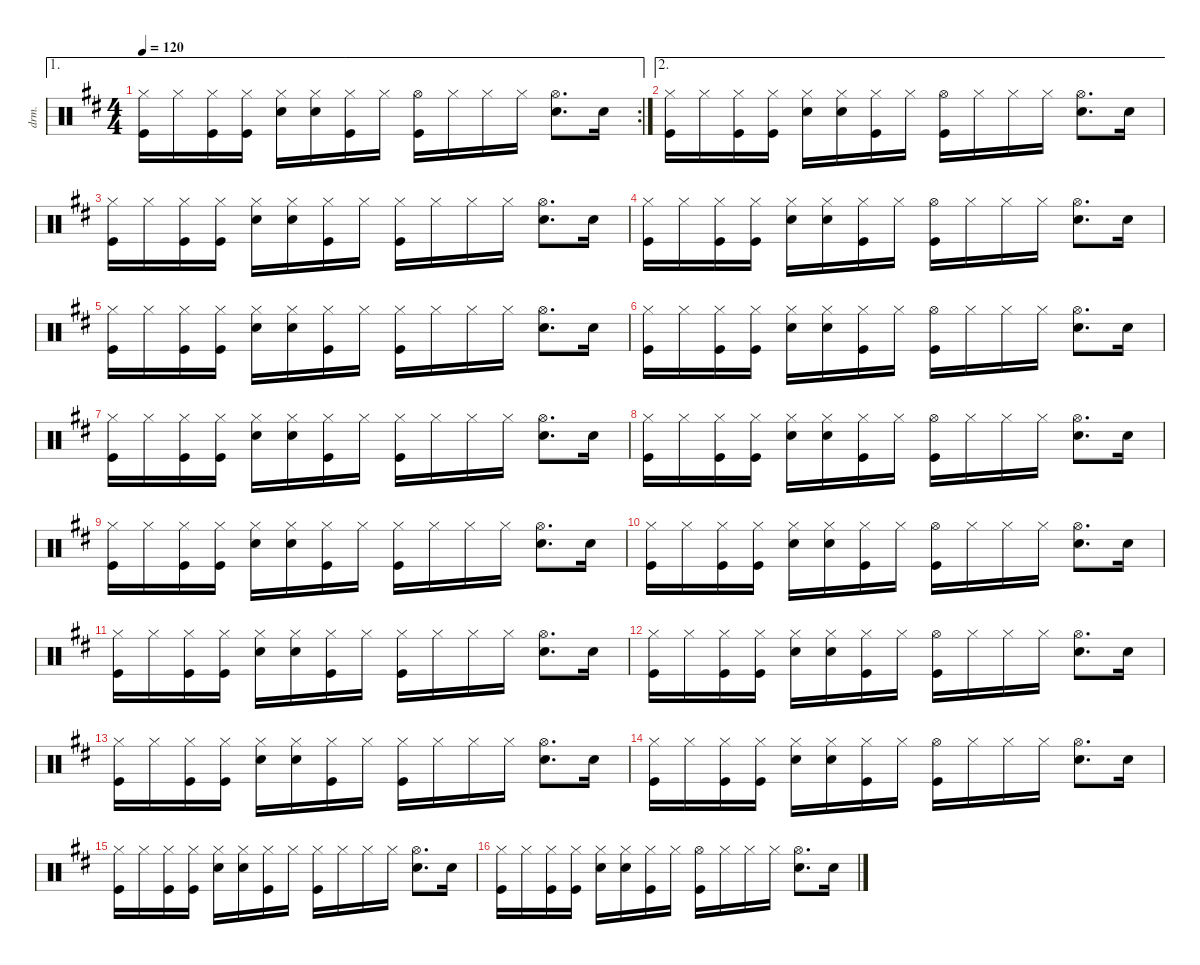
\defaultSystemsLayout 4
\hideDynamics
\bracketExtendMode nobrackets
\otherSystemsTrackNameOrientation horizontal
\track ("Drums" "drm.") {instrument percussion}
\staff {score}
\articulation defaults
\ae 1
\rc 2
\ts (4 4)
\tempo 120
\clef neutral
\ks d
("Hi-Hat (closed)"{acc forcenatural} "Kick (hit)"{acc forcenatural}).16{dy f} "Hi-Hat (closed)"{acc forcenatural}.16 ("Hi-Hat (closed)"{acc forcenatural} "Kick (hit)"{acc forcenatural}).16 ("Hi-Hat (closed)"{acc forcenatural} "Kick (hit)"{acc forcenatural}).16 ("Hi-Hat (closed)"{acc forcenatural} "Snare (hit) 2"{acc forcenatural}).16 ("Hi-Hat (closed)"{acc forcenatural} "Snare (hit) 2"{acc forcenatural}).16 ("Hi-Hat (closed)"{acc forcenatural} "Kick (hit)"{acc forcenatural}).16 "Hi-Hat (closed)"{acc forcenatural}.16 ("Hi-Hat (open)"{acc forcenatural} "Kick (hit)"{acc forcenatural}).16 "Hi-Hat (closed)"{acc forcenatural}.16 "Hi-Hat (closed)"{acc forcenatural}.16 "Hi-Hat (closed)"{acc forcenatural}.16 ("Hi-Hat (open)"{acc forcenatural} "Snare (hit) 2"{acc forcenatural}).8{d} "Snare (hit) 2"{acc forcenatural}.16 |
\ae 2
("Hi-Hat (closed)"{acc forcenatural} "Kick (hit)"{acc forcenatural}).16 "Hi-Hat (closed)"{acc forcenatural}.16 ("Hi-Hat (closed)"{acc forcenatural} "Kick (hit)"{acc forcenatural}).16 ("Hi-Hat (closed)"{acc forcenatural} "Kick (hit)"{acc forcenatural}).16 ("Hi-Hat (closed)"{acc forcenatural} "Snare (hit) 2"{acc forcenatural}).16 ("Hi-Hat (closed)"{acc forcenatural} "Snare (hit) 2"{acc forcenatural}).16 ("Hi-Hat (closed)"{acc forcenatural} "Kick (hit)"{acc forcenatural}).16 "Hi-Hat (closed)"{acc forcenatural}.16 ("Hi-Hat (open)"{acc forcenatural} "Kick (hit)"{acc forcenatural}).16 "Hi-Hat (closed)"{acc forcenatural}.16 "Hi-Hat (closed)"{acc forcenatural}.16 "Hi-Hat (closed)"{acc forcenatural}.16 ("Hi-Hat (open)"{acc forcenatural} "Snare (hit) 2"{acc forcenatural}).8{d} "Snare (hit) 2"{acc forcenatural}.16 |
("Hi-Hat (closed)"{acc forcenatural} "Kick (hit)"{acc forcenatural}).16 "Hi-Hat (closed)"{acc forcenatural}.16 ("Hi-Hat (closed)"{acc forcenatural} "Kick (hit)"{acc forcenatural}).16 ("Hi-Hat (closed)"{acc forcenatural} "Kick (hit)"{acc forcenatural}).16 ("Hi-Hat (closed)"{acc forcenatural} "Snare (hit) 2"{acc forcenatural}).16 ("Hi-Hat (closed)"{acc forcenatural} "Snare (hit) 2"{acc forcenatural}).16 ("Hi-Hat (closed)"{acc forcenatural} "Kick (hit)"{acc forcenatural}).16 "Hi-Hat (closed)"{acc forcenatural}.16 ("Hi-Hat (closed)"{acc forcenatural} "Kick (hit)"{acc forcenatural}).16 "Hi-Hat (closed)"{acc forcenatural}.16 "Hi-Hat (closed)"{acc forcenatural}.16 "Hi-Hat (closed)"{acc forcenatural}.16 ("Hi-Hat (open)"{acc forcenatural} "Snare (hit) 2"{acc forcenatural}).8{d} "Snare (hit) 2"{acc forcenatural}.16 |
("Hi-Hat (closed)"{acc forcenatural} "Kick (hit)"{acc forcenatural}).16 "Hi-Hat (closed)"{acc forcenatural}.16 ("Hi-Hat (closed)"{acc forcenatural} "Kick (hit)"{acc forcenatural}).16 ("Hi-Hat (closed)"{acc forcenatural} "Kick (hit)"{acc forcenatural}).16 ("Hi-Hat (closed)"{acc forcenatural} "Snare (hit) 2"{acc forcenatural}).16 ("Hi-Hat (closed)"{acc forcenatural} "Snare (hit) 2"{acc forcenatural}).16 ("Hi-Hat (closed)"{acc forcenatural} "Kick (hit)"{acc forcenatural}).16 "Hi-Hat (closed)"{acc forcenatural}.16 ("Hi-Hat (open)"{acc forcenatural} "Kick (hit)"{acc forcenatural}).16 "Hi-Hat (closed)"{acc forcenatural}.16 "Hi-Hat (closed)"{acc forcenatural}.16 "Hi-Hat (closed)"{acc forcenatural}.16 ("Hi-Hat (open)"{acc forcenatural} "Snare (hit) 2"{acc forcenatural}).8{d} "Snare (hit) 2"{acc forcenatural}.16 |
("Hi-Hat (closed)"{acc forcenatural} "Kick (hit)"{acc forcenatural}).16 "Hi-Hat (closed)"{acc forcenatural}.16 ("Hi-Hat (closed)"{acc forcenatural} "Kick (hit)"{acc forcenatural}).16 ("Hi-Hat (closed)"{acc forcenatural} "Kick (hit)"{acc forcenatural}).16 ("Hi-Hat (closed)"{acc forcenatural} "Snare (hit) 2"{acc forcenatural}).16 ("Hi-Hat (closed)"{acc forcenatural} "Snare (hit) 2"{acc forcenatural}).16 ("Hi-Hat (closed)"{acc forcenatural} "Kick (hit)"{acc forcenatural}).16 "Hi-Hat (closed)"{acc forcenatural}.16 ("Hi-Hat (closed)"{acc forcenatural} "Kick (hit)"{acc forcenatural}).16 "Hi-Hat (closed)"{acc forcenatural}.16 "Hi-Hat (closed)"{acc forcenatural}.16 "Hi-Hat (closed)"{acc forcenatural}.16 ("Hi-Hat (open)"{acc forcenatural} "Snare (hit) 2"{acc forcenatural}).8{d} "Snare (hit) 2"{acc forcenatural}.16 |
("Hi-Hat (closed)"{acc forcenatural} "Kick (hit)"{acc forcenatural}).16 "Hi-Hat (closed)"{acc forcenatural}.16 ("Hi-Hat (closed)"{acc forcenatural} "Kick (hit)"{acc forcenatural}).16 ("Hi-Hat (closed)"{acc forcenatural} "Kick (hit)"{acc forcenatural}).16 ("Hi-Hat (closed)"{acc forcenatural} "Snare (hit) 2"{acc forcenatural}).16 ("Hi-Hat (closed)"{acc forcenatural} "Snare (hit) 2"{acc forcenatural}).16 ("Hi-Hat (closed)"{acc forcenatural} "Kick (hit)"{acc forcenatural}).16 "Hi-Hat (closed)"{acc forcenatural}.16 ("Hi-Hat (open)"{acc forcenatural} "Kick (hit)"{acc forcenatural}).16 "Hi-Hat (closed)"{acc forcenatural}.16 "Hi-Hat (closed)"{acc forcenatural}.16 "Hi-Hat (closed)"{acc forcenatural}.16 ("Hi-Hat (open)"{acc forcenatural} "Snare (hit) 2"{acc forcenatural}).8{d} "Snare (hit) 2"{acc forcenatural}.16 |
("Hi-Hat (closed)"{acc forcenatural} "Kick (hit)"{acc forcenatural}).16 "Hi-Hat (closed)"{acc forcenatural}.16 ("Hi-Hat (closed)"{acc forcenatural} "Kick (hit)"{acc forcenatural}).16 ("Hi-Hat (closed)"{acc forcenatural} "Kick (hit)"{acc forcenatural}).16 ("Hi-Hat (closed)"{acc forcenatural} "Snare (hit) 2"{acc forcenatural}).16 ("Hi-Hat (closed)"{acc forcenatural} "Snare (hit) 2"{acc forcenatural}).16 ("Hi-Hat (closed)"{acc forcenatural} "Kick (hit)"{acc forcenatural}).16 "Hi-Hat (closed)"{acc forcenatural}.16 ("Hi-Hat (closed)"{acc forcenatural} "Kick (hit)"{acc forcenatural}).16 "Hi-Hat (closed)"{acc forcenatural}.16 "Hi-Hat (closed)"{acc forcenatural}.16 "Hi-Hat (closed)"{acc forcenatural}.16 ("Hi-Hat (open)"{acc forcenatural} "Snare (hit) 2"{acc forcenatural}).8{d} "Snare (hit) 2"{acc forcenatural}.16 |
("Hi-Hat (closed)"{acc forcenatural} "Kick (hit)"{acc forcenatural}).16 "Hi-Hat (closed)"{acc forcenatural}.16 ("Hi-Hat (closed)"{acc forcenatural} "Kick (hit)"{acc forcenatural}).16 ("Hi-Hat (closed)"{acc forcenatural} "Kick (hit)"{acc forcenatural}).16 ("Hi-Hat (closed)"{acc forcenatural} "Snare (hit) 2"{acc forcenatural}).16 ("Hi-Hat (closed)"{acc forcenatural} "Snare (hit) 2"{acc forcenatural}).16 ("Hi-Hat (closed)"{acc forcenatural} "Kick (hit)"{acc forcenatural}).16 "Hi-Hat (closed)"{acc forcenatural}.16 ("Hi-Hat (open)"{acc forcenatural} "Kick (hit)"{acc forcenatural}).16 "Hi-Hat (closed)"{acc forcenatural}.16 "Hi-Hat (closed)"{acc forcenatural}.16 "Hi-Hat (closed)"{acc forcenatural}.16 ("Hi-Hat (open)"{acc forcenatural} "Snare (hit) 2"{acc forcenatural}).8{d} "Snare (hit) 2"{acc forcenatural}.16 |
("Hi-Hat (closed)"{acc forcenatural} "Kick (hit)"{acc forcenatural}).16 "Hi-Hat (closed)"{acc forcenatural}.16 ("Hi-Hat (closed)"{acc forcenatural} "Kick (hit)"{acc forcenatural}).16 ("Hi-Hat (closed)"{acc forcenatural} "Kick (hit)"{acc forcenatural}).16 ("Hi-Hat (closed)"{acc forcenatural} "Snare (hit) 2"{acc forcenatural}).16 ("Hi-Hat (closed)"{acc forcenatural} "Snare (hit) 2"{acc forcenatural}).16 ("Hi-Hat (closed)"{acc forcenatural} "Kick (hit)"{acc forcenatural}).16 "Hi-Hat (closed)"{acc forcenatural}.16 ("Hi-Hat (closed)"{acc forcenatural} "Kick (hit)"{acc forcenatural}).16 "Hi-Hat (closed)"{acc forcenatural}.16 "Hi-Hat (closed)"{acc forcenatural}.16 "Hi-Hat (closed)"{acc forcenatural}.16 ("Hi-Hat (open)"{acc forcenatural} "Snare (hit) 2"{acc forcenatural}).8{d} "Snare (hit) 2"{acc forcenatural}.16 |
("Hi-Hat (closed)"{acc forcenatural} "Kick (hit)"{acc forcenatural}).16 "Hi-Hat (closed)"{acc forcenatural}.16 ("Hi-Hat (closed)"{acc forcenatural} "Kick (hit)"{acc forcenatural}).16 ("Hi-Hat (closed)"{acc forcenatural} "Kick (hit)"{acc forcenatural}).16 ("Hi-Hat (closed)"{acc forcenatural} "Snare (hit) 2"{acc forcenatural}).16 ("Hi-Hat (closed)"{acc forcenatural} "Snare (hit) 2"{acc forcenatural}).16 ("Hi-Hat (closed)"{acc forcenatural} "Kick (hit)"{acc forcenatural}).16 "Hi-Hat (closed)"{acc forcenatural}.16 ("Hi-Hat (open)"{acc forcenatural} "Kick (hit)"{acc forcenatural}).16 "Hi-Hat (closed)"{acc forcenatural}.16 "Hi-Hat (closed)"{acc forcenatural}.16 "Hi-Hat (closed)"{acc forcenatural}.16 ("Hi-Hat (open)"{acc forcenatural} "Snare (hit) 2"{acc forcenatural}).8{d} "Snare (hit) 2"{acc forcenatural}.16 |
("Hi-Hat (closed)"{acc forcenatural} "Kick (hit)"{acc forcenatural}).16 "Hi-Hat (closed)"{acc forcenatural}.16 ("Hi-Hat (closed)"{acc forcenatural} "Kick (hit)"{acc forcenatural}).16 ("Hi-Hat (closed)"{acc forcenatural} "Kick (hit)"{acc forcenatural}).16 ("Hi-Hat (closed)"{acc forcenatural} "Snare (hit) 2"{acc forcenatural}).16 ("Hi-Hat (closed)"{acc forcenatural} "Snare (hit) 2"{acc forcenatural}).16 ("Hi-Hat (closed)"{acc forcenatural} "Kick (hit)"{acc forcenatural}).16 "Hi-Hat (closed)"{acc forcenatural}.16 ("Hi-Hat (closed)"{acc forcenatural} "Kick (hit)"{acc forcenatural}).16 "Hi-Hat (closed)"{acc forcenatural}.16 "Hi-Hat (closed)"{acc forcenatural}.16 "Hi-Hat (closed)"{acc forcenatural}.16 ("Hi-Hat (open)"{acc forcenatural} "Snare (hit) 2"{acc forcenatural}).8{d} "Snare (hit) 2"{acc forcenatural}.16 |
("Hi-Hat (closed)"{acc forcenatural} "Kick (hit)"{acc forcenatural}).16 "Hi-Hat (closed)"{acc forcenatural}.16 ("Hi-Hat (closed)"{acc forcenatural} "Kick (hit)"{acc forcenatural}).16 ("Hi-Hat (closed)"{acc forcenatural} "Kick (hit)"{acc forcenatural}).16 ("Hi-Hat (closed)"{acc forcenatural} "Snare (hit) 2"{acc forcenatural}).16 ("Hi-Hat (closed)"{acc forcenatural} "Snare (hit) 2"{acc forcenatural}).16 ("Hi-Hat (closed)"{acc forcenatural} "Kick (hit)"{acc forcenatural}).16 "Hi-Hat (closed)"{acc forcenatural}.16 ("Hi-Hat (open)"{acc forcenatural} "Kick (hit)"{acc forcenatural}).16 "Hi-Hat (closed)"{acc forcenatural}.16 "Hi-Hat (closed)"{acc forcenatural}.16 "Hi-Hat (closed)"{acc forcenatural}.16 ("Hi-Hat (open)"{acc forcenatural} "Snare (hit) 2"{acc forcenatural}).8{d} "Snare (hit) 2"{acc forcenatural}.16 |
("Hi-Hat (closed)"{acc forcenatural} "Kick (hit)"{acc forcenatural}).16 "Hi-Hat (closed)"{acc forcenatural}.16 ("Hi-Hat (closed)"{acc forcenatural} "Kick (hit)"{acc forcenatural}).16 ("Hi-Hat (closed)"{acc forcenatural} "Kick (hit)"{acc forcenatural}).16 ("Hi-Hat (closed)"{acc forcenatural} "Snare (hit) 2"{acc forcenatural}).16 ("Hi-Hat (closed)"{acc forcenatural} "Snare (hit) 2"{acc forcenatural}).16 ("Hi-Hat (closed)"{acc forcenatural} "Kick (hit)"{acc forcenatural}).16 "Hi-Hat (closed)"{acc forcenatural}.16 ("Hi-Hat (closed)"{acc forcenatural} "Kick (hit)"{acc forcenatural}).16 "Hi-Hat (closed)"{acc forcenatural}.16 "Hi-Hat (closed)"{acc forcenatural}.16 "Hi-Hat (closed)"{acc forcenatural}.16 ("Hi-Hat (open)"{acc forcenatural} "Snare (hit) 2"{acc forcenatural}).8{d} "Snare (hit) 2"{acc forcenatural}.16 |
("Hi-Hat (closed)"{acc forcenatural} "Kick (hit)"{acc forcenatural}).16 "Hi-Hat (closed)"{acc forcenatural}.16 ("Hi-Hat (closed)"{acc forcenatural} "Kick (hit)"{acc forcenatural}).16 ("Hi-Hat (closed)"{acc forcenatural} "Kick (hit)"{acc forcenatural}).16 ("Hi-Hat (closed)"{acc forcenatural} "Snare (hit) 2"{acc forcenatural}).16 ("Hi-Hat (closed)"{acc forcenatural} "Snare (hit) 2"{acc forcenatural}).16 ("Hi-Hat (closed)"{acc forcenatural} "Kick (hit)"{acc forcenatural}).16 "Hi-Hat (closed)"{acc forcenatural}.16 ("Hi-Hat (open)"{acc forcenatural} "Kick (hit)"{acc forcenatural}).16 "Hi-Hat (closed)"{acc forcenatural}.16 "Hi-Hat (closed)"{acc forcenatural}.16 "Hi-Hat (closed)"{acc forcenatural}.16 ("Hi-Hat (open)"{acc forcenatural} "Snare (hit) 2"{acc forcenatural}).8{d} "Snare (hit) 2"{acc forcenatural}.16 |
("Hi-Hat (closed)"{acc forcenatural} "Kick (hit)"{acc forcenatural}).16 "Hi-Hat (closed)"{acc forcenatural}.16 ("Hi-Hat (closed)"{acc forcenatural} "Kick (hit)"{acc forcenatural}).16 ("Hi-Hat (closed)"{acc forcenatural} "Kick (hit)"{acc forcenatural}).16 ("Hi-Hat (closed)"{acc forcenatural} "Snare (hit) 2"{acc forcenatural}).16 ("Hi-Hat (closed)"{acc forcenatural} "Snare (hit) 2"{acc forcenatural}).16 ("Hi-Hat (closed)"{acc forcenatural} "Kick (hit)"{acc forcenatural}).16 "Hi-Hat (closed)"{acc forcenatural}.16 ("Hi-Hat (closed)"{acc forcenatural} "Kick (hit)"{acc forcenatural}).16 "Hi-Hat (closed)"{acc forcenatural}.16 "Hi-Hat (closed)"{acc forcenatural}.16 "Hi-Hat (closed)"{acc forcenatural}.16 ("Hi-Hat (open)"{acc forcenatural} "Snare (hit) 2"{acc forcenatural}).8{d} "Snare (hit) 2"{acc forcenatural}.16 |
("Hi-Hat (closed)"{acc forcenatural} "Kick (hit)"{acc forcenatural}).16 "Hi-Hat (closed)"{acc forcenatural}.16 ("Hi-Hat (closed)"{acc forcenatural} "Kick (hit)"{acc forcenatural}).16 ("Hi-Hat (closed)"{acc forcenatural} "Kick (hit)"{acc forcenatural}).16 ("Hi-Hat (closed)"{acc forcenatural} "Snare (hit) 2"{acc forcenatural}).16 ("Hi-Hat (closed)"{acc forcenatural} "Snare (hit) 2"{acc forcenatural}).16 ("Hi-Hat (closed)"{acc forcenatural} "Kick (hit)"{acc forcenatural}).16 "Hi-Hat (closed)"{acc forcenatural}.16 ("Hi-Hat (open)"{acc forcenatural} "Kick (hit)"{acc forcenatural}).16 "Hi-Hat (closed)"{acc forcenatural}.16 "Hi-Hat (closed)"{acc forcenatural}.16 "Hi-Hat (closed)"{acc forcenatural}.16 ("Hi-Hat (open)"{acc forcenatural} "Snare (hit) 2"{acc forcenatural}).8{d} "Snare (hit) 2"{acc forcenatural}.16
